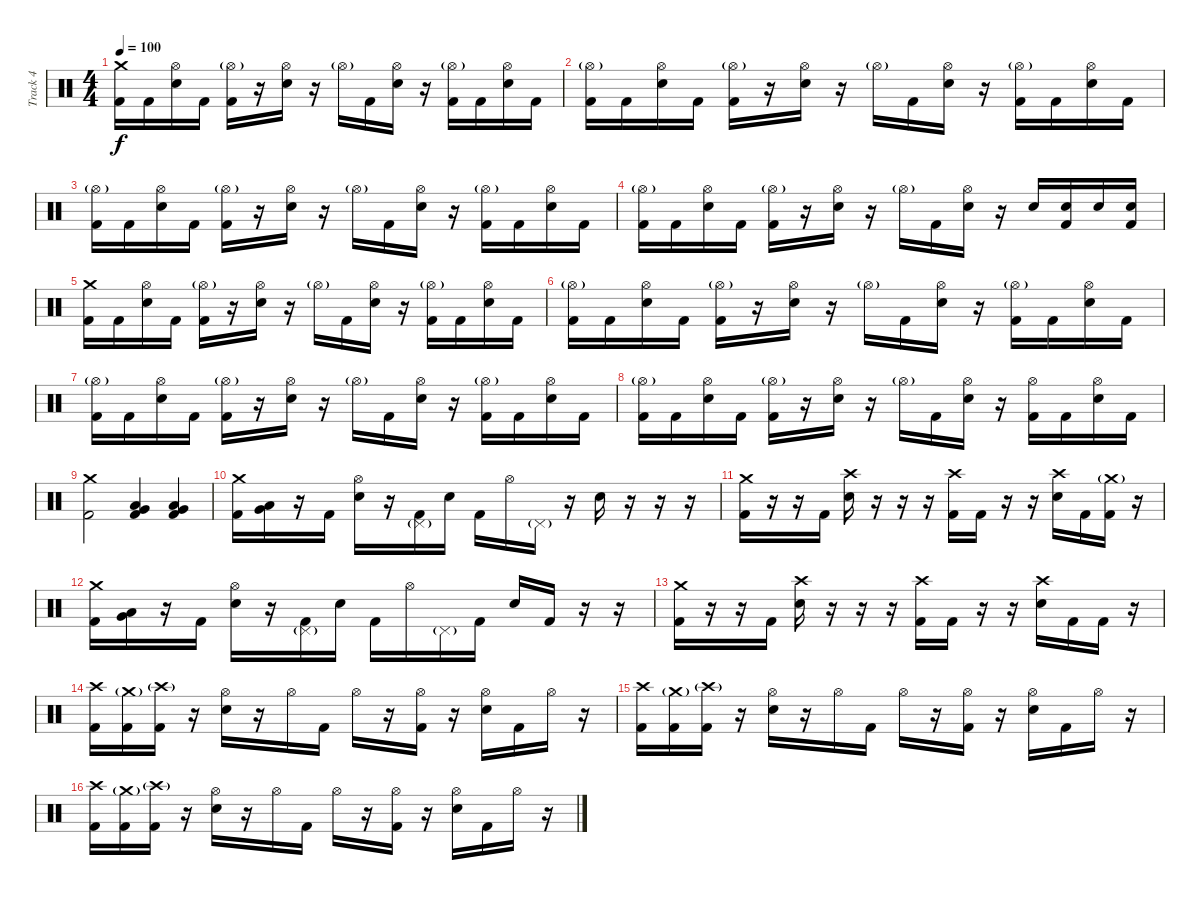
\track ("Track 4" "Track 4") {instrument percussion}
\staff {score}
\articulation defaults
\ts (4 4)
\tempo 100
\clef neutral
\ks c
("Crash medium (hit)" "Kick (hit) 2").16{dy f} "Kick (hit) 2".16 ("Hi-Hat (open)" "Electric Snare (hit)").16 "Kick (hit) 2".16 ("Hi-Hat (open)"{g} "Kick (hit) 2").16 r.16 ("Hi-Hat (open)" "Electric Snare (hit)").16 r.16 "Hi-Hat (open)"{g}.16 "Kick (hit) 2".16 ("Hi-Hat (open)" "Electric Snare (hit)").16 r.16 ("Hi-Hat (open)"{g} "Kick (hit) 2").16 "Kick (hit) 2".16 ("Hi-Hat (open)" "Electric Snare (hit)").16 "Kick (hit) 2".16 |
("Hi-Hat (open)"{g} "Kick (hit) 2").16 "Kick (hit) 2".16 ("Hi-Hat (open)" "Electric Snare (hit)").16 "Kick (hit) 2".16 ("Hi-Hat (open)"{g} "Kick (hit) 2").16 r.16 ("Hi-Hat (open)" "Electric Snare (hit)").16 r.16 "Hi-Hat (open)"{g}.16 "Kick (hit) 2".16 ("Hi-Hat (open)" "Electric Snare (hit)").16 r.16 ("Hi-Hat (open)"{g} "Kick (hit) 2").16 "Kick (hit) 2".16 ("Hi-Hat (open)" "Electric Snare (hit)").16 "Kick (hit) 2".16 |
("Hi-Hat (open)"{g} "Kick (hit) 2").16 "Kick (hit) 2".16 ("Hi-Hat (open)" "Electric Snare (hit)").16 "Kick (hit) 2".16 ("Hi-Hat (open)"{g} "Kick (hit) 2").16 r.16 ("Hi-Hat (open)" "Electric Snare (hit)").16 r.16 "Hi-Hat (open)"{g}.16 "Kick (hit) 2".16 ("Hi-Hat (open)" "Electric Snare (hit)").16 r.16 ("Hi-Hat (open)"{g} "Kick (hit) 2").16 "Kick (hit) 2".16 ("Hi-Hat (open)" "Electric Snare (hit)").16 "Kick (hit) 2".16 |
("Hi-Hat (open)"{g} "Kick (hit) 2").16 "Kick (hit) 2".16 ("Hi-Hat (open)" "Electric Snare (hit)").16 "Kick (hit) 2".16 ("Hi-Hat (open)"{g} "Kick (hit) 2").16 r.16 ("Hi-Hat (open)" "Electric Snare (hit)").16 r.16 "Hi-Hat (open)"{g}.16 "Kick (hit) 2".16 ("Hi-Hat (open)" "Electric Snare (hit)").16 r.16 "Electric Snare (hit)".16 ("Electric Snare (hit)" "Kick (hit) 2").16 "Electric Snare (hit)".16 ("Electric Snare (hit)" "Kick (hit) 2").16 |
("Crash medium (hit)" "Kick (hit) 2").16 "Kick (hit) 2".16 ("Hi-Hat (open)" "Electric Snare (hit)").16 "Kick (hit) 2".16 ("Hi-Hat (open)"{g} "Kick (hit) 2").16 r.16 ("Hi-Hat (open)" "Electric Snare (hit)").16 r.16 "Hi-Hat (open)"{g}.16 "Kick (hit) 2".16 ("Hi-Hat (open)" "Electric Snare (hit)").16 r.16 ("Hi-Hat (open)"{g} "Kick (hit) 2").16 "Kick (hit) 2".16 ("Hi-Hat (open)" "Electric Snare (hit)").16 "Kick (hit) 2".16 |
("Hi-Hat (open)"{g} "Kick (hit) 2").16 "Kick (hit) 2".16 ("Hi-Hat (open)" "Electric Snare (hit)").16 "Kick (hit) 2".16 ("Hi-Hat (open)"{g} "Kick (hit) 2").16 r.16 ("Hi-Hat (open)" "Electric Snare (hit)").16 r.16 "Hi-Hat (open)"{g}.16 "Kick (hit) 2".16 ("Hi-Hat (open)" "Electric Snare (hit)").16 r.16 ("Hi-Hat (open)"{g} "Kick (hit) 2").16 "Kick (hit) 2".16 ("Hi-Hat (open)" "Electric Snare (hit)").16 "Kick (hit) 2".16 |
("Hi-Hat (open)"{g} "Kick (hit) 2").16 "Kick (hit) 2".16 ("Hi-Hat (open)" "Electric Snare (hit)").16 "Kick (hit) 2".16 ("Hi-Hat (open)"{g} "Kick (hit) 2").16 r.16 ("Hi-Hat (open)" "Electric Snare (hit)").16 r.16 "Hi-Hat (open)"{g}.16 "Kick (hit) 2".16 ("Hi-Hat (open)" "Electric Snare (hit)").16 r.16 ("Hi-Hat (open)"{g} "Kick (hit) 2").16 "Kick (hit) 2".16 ("Hi-Hat (open)" "Electric Snare (hit)").16 "Kick (hit) 2".16 |
("Hi-Hat (open)"{g} "Kick (hit) 2").16 "Kick (hit) 2".16 ("Hi-Hat (open)" "Electric Snare (hit)").16 "Kick (hit) 2".16 ("Hi-Hat (open)"{g} "Kick (hit) 2").16 r.16 ("Hi-Hat (open)" "Electric Snare (hit)").16 r.16 "Hi-Hat (open)"{g}.16 "Kick (hit) 2".16 ("Hi-Hat (open)" "Electric Snare (hit)").16 r.16 ("Hi-Hat (open)" "Kick (hit) 2").16 "Kick (hit) 2".16 ("Hi-Hat (open)" "Electric Snare (hit)").16 "Kick (hit) 2".16 |
("Crash medium (hit)" "Kick (hit) 2").2 ("Very Low Tom (hit)" "Low Tom (hit)" "Kick (hit) 2").4 ("Low Floor Tom (hit)" "Very Low Tom (hit)" "Kick (hit) 2").4 |
("Crash medium (hit)" "Kick (hit) 2").16 ("Very Low Tom (hit)" "Low Tom (hit)").16 r.16 "Kick (hit) 2".16 ("Hi-Hat (open)" "Electric Snare (hit)").16 r.16 ("Pedal Hi-Hat (hit)"{g} "Kick (hit) 2").16 "Electric Snare (hit)".16 "Kick (hit) 2".16 "Hi-Hat (open)".16 "Pedal Hi-Hat (hit)"{g}.16 r.16 "Electric Snare (hit)".16 r.16 r.16 r.16 |
("Crash medium (hit)" "Kick (hit) 2").16 r.16 r.16 "Kick (hit) 2".16 ("Crash high (hit)" "Electric Snare (hit)").16 r.16 r.16 r.16 ("Crash high (hit)" "Kick (hit) 2").16 "Kick (hit) 2".16 r.16 r.16 ("Crash high (hit)" "Electric Snare (hit)").16 "Kick (hit) 2".16 ("Crash medium (hit)"{g} "Kick (hit) 2").16 r.16 |
("Crash medium (hit)" "Kick (hit) 2").16 ("Very Low Tom (hit)" "Low Tom (hit)").16 r.16 "Kick (hit) 2".16 ("Hi-Hat (open)" "Electric Snare (hit)").16 r.16 ("Pedal Hi-Hat (hit)"{g} "Kick (hit) 2").16 "Electric Snare (hit)".16 "Kick (hit) 2".16 "Hi-Hat (open)".16 "Pedal Hi-Hat (hit)"{g}.16 "Kick (hit) 2".16 "Electric Snare (hit)".16 "Kick (hit) 2".16 r.16 r.16 |
("Crash medium (hit)" "Kick (hit) 2").16 r.16 r.16 "Kick (hit) 2".16 ("Crash high (hit)" "Electric Snare (hit)").16 r.16 r.16 r.16 ("Crash high (hit)" "Kick (hit) 2").16 "Kick (hit) 2".16 r.16 r.16 ("Crash high (hit)" "Electric Snare (hit)").16 "Kick (hit) 2".16 "Kick (hit) 2".16 r.16 |
("Crash high (hit)" "Kick (hit) 2").16 ("Crash medium (hit)"{g} "Kick (hit) 2").16 ("Crash high (hit)"{g} "Kick (hit) 2").16 r.16 ("Hi-Hat (open)" "Electric Snare (hit)").16 r.16 "Hi-Hat (open)".16 "Kick (hit) 2".16 "Hi-Hat (open)".16 r.16 ("Hi-Hat (open)" "Kick (hit) 2").16 r.16 ("Hi-Hat (open)" "Electric Snare (hit)").16 "Kick (hit) 2".16 "Hi-Hat (open)".16 r.16 |
("Crash high (hit)" "Kick (hit) 2").16 ("Crash medium (hit)"{g} "Kick (hit) 2").16 ("Crash high (hit)"{g} "Kick (hit) 2").16 r.16 ("Hi-Hat (open)" "Electric Snare (hit)").16 r.16 "Hi-Hat (open)".16 "Kick (hit) 2".16 "Hi-Hat (open)".16 r.16 ("Hi-Hat (open)" "Kick (hit) 2").16 r.16 ("Hi-Hat (open)" "Electric Snare (hit)").16 "Kick (hit) 2".16 "Hi-Hat (open)".16 r.16 |
("Crash high (hit)" "Kick (hit) 2").16 ("Crash medium (hit)"{g} "Kick (hit) 2").16 ("Crash high (hit)"{g} "Kick (hit) 2").16 r.16 ("Hi-Hat (open)" "Electric Snare (hit)").16 r.16 "Hi-Hat (open)".16 "Kick (hit) 2".16 "Hi-Hat (open)".16 r.16 ("Hi-Hat (open)" "Kick (hit) 2").16 r.16 ("Hi-Hat (open)" "Electric Snare (hit)").16 "Kick (hit) 2".16 "Hi-Hat (open)".16 r.16
